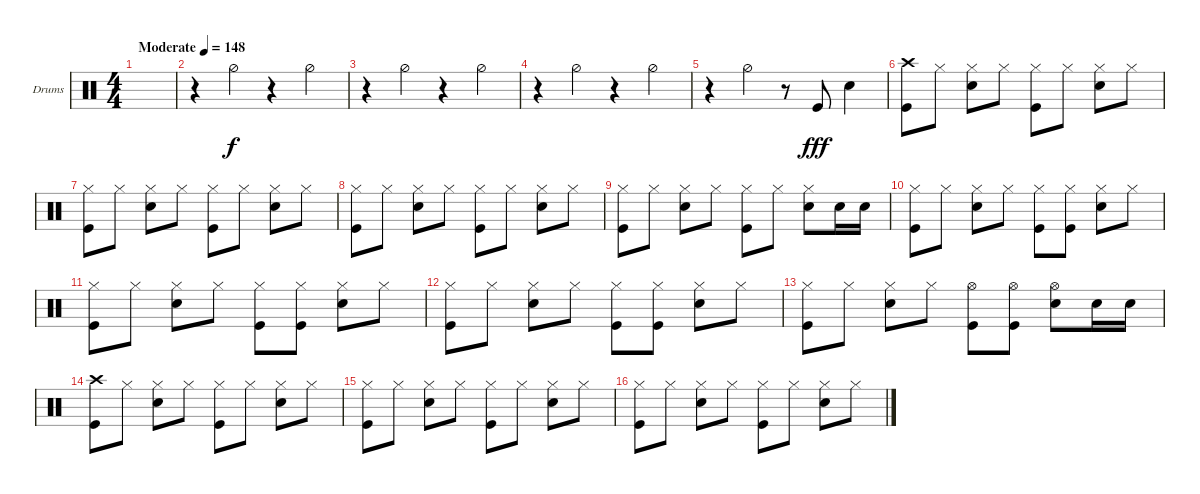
\bracketExtendMode groupsimilarinstruments
\firstSystemTrackNameOrientation horizontal
\otherSystemsTrackNameOrientation horizontal
\track ("James Kottak" "Drums") {instrument percussion}
\staff {score}
\articulation defaults
\ts (4 4)
\beaming (8 2 2 2 2)
\tempo (148 "Moderate")
\clef neutral
\ks c
|
r.4 "Hi-Hat (half)".4 r.4 "Hi-Hat (half)".4 |
r.4 "Hi-Hat (half)".4 r.4 "Hi-Hat (half)".4 |
r.4 "Hi-Hat (half)".4 r.4 "Hi-Hat (half)".4 |
r.4 "Hi-Hat (half)".4 r.8 "Kick (hit)".8{dy fff} "Snare (hit) 2".4 |
("Kick (hit)" "Crash high (hit)").8 "Hi-Hat (closed)".8 ("Hi-Hat (closed)" "Snare (hit) 2").8 "Hi-Hat (closed)".8 ("Hi-Hat (closed)" "Kick (hit)").8 "Hi-Hat (closed)".8 ("Hi-Hat (closed)" "Snare (hit) 2").8 "Hi-Hat (closed)".8 |
("Kick (hit)" "Hi-Hat (closed)").8 "Hi-Hat (closed)".8 ("Hi-Hat (closed)" "Snare (hit) 2").8 "Hi-Hat (closed)".8 ("Hi-Hat (closed)" "Kick (hit)").8 "Hi-Hat (closed)".8 ("Hi-Hat (closed)" "Snare (hit) 2").8 "Hi-Hat (closed)".8 |
("Kick (hit)" "Hi-Hat (closed)").8 "Hi-Hat (closed)".8 ("Hi-Hat (closed)" "Snare (hit) 2").8 "Hi-Hat (closed)".8 ("Hi-Hat (closed)" "Kick (hit)").8 "Hi-Hat (closed)".8 ("Hi-Hat (closed)" "Snare (hit) 2").8 "Hi-Hat (closed)".8 |
("Kick (hit)" "Hi-Hat (closed)").8 "Hi-Hat (closed)".8 ("Hi-Hat (closed)" "Snare (hit) 2").8 "Hi-Hat (closed)".8 ("Hi-Hat (closed)" "Kick (hit)").8 "Hi-Hat (closed)".8 ("Hi-Hat (closed)" "Snare (hit) 2").8 "Snare (hit) 2".16 "Snare (hit) 2".16 |
("Kick (hit)" "Hi-Hat (closed)").8 "Hi-Hat (closed)".8 ("Hi-Hat (closed)" "Snare (hit) 2").8 "Hi-Hat (closed)".8 ("Hi-Hat (closed)" "Kick (hit)").8 ("Hi-Hat (closed)" "Kick (hit)").8 ("Hi-Hat (closed)" "Snare (hit) 2").8 "Hi-Hat (closed)".8 |
("Kick (hit)" "Hi-Hat (closed)").8 "Hi-Hat (closed)".8 ("Hi-Hat (closed)" "Snare (hit) 2").8 "Hi-Hat (closed)".8 ("Hi-Hat (closed)" "Kick (hit)").8 ("Hi-Hat (closed)" "Kick (hit)").8 ("Hi-Hat (closed)" "Snare (hit) 2").8 "Hi-Hat (closed)".8 |
("Kick (hit)" "Hi-Hat (closed)").8 "Hi-Hat (closed)".8 ("Hi-Hat (closed)" "Snare (hit) 2").8 "Hi-Hat (closed)".8 ("Hi-Hat (closed)" "Kick (hit)").8 ("Hi-Hat (closed)" "Kick (hit)").8 ("Hi-Hat (closed)" "Snare (hit) 2").8 "Hi-Hat (closed)".8 |
("Kick (hit)" "Hi-Hat (closed)").8 "Hi-Hat (closed)".8 ("Hi-Hat (closed)" "Snare (hit) 2").8 "Hi-Hat (closed)".8 ("Hi-Hat (open)" "Kick (hit)").8 ("Hi-Hat (open)" "Kick (hit)").8 ("Hi-Hat (open)" "Snare (hit) 2").8 "Snare (hit) 2".16 "Snare (hit) 2".16 |
("Kick (hit)" "Crash high (hit)").8 "Hi-Hat (closed)".8 ("Hi-Hat (closed)" "Snare (hit) 2").8 "Hi-Hat (closed)".8 ("Hi-Hat (closed)" "Kick (hit)").8 "Hi-Hat (closed)".8 ("Hi-Hat (closed)" "Snare (hit) 2").8 "Hi-Hat (closed)".8 |
("Kick (hit)" "Hi-Hat (closed)").8 "Hi-Hat (closed)".8 ("Hi-Hat (closed)" "Snare (hit) 2").8 "Hi-Hat (closed)".8 ("Hi-Hat (closed)" "Kick (hit)").8 "Hi-Hat (closed)".8 ("Hi-Hat (closed)" "Snare (hit) 2").8 "Hi-Hat (closed)".8 |
("Kick (hit)" "Hi-Hat (closed)").8 "Hi-Hat (closed)".8 ("Hi-Hat (closed)" "Snare (hit) 2").8 "Hi-Hat (closed)".8 ("Hi-Hat (closed)" "Kick (hit)").8 "Hi-Hat (closed)".8 ("Hi-Hat (closed)" "Snare (hit) 2").8 "Hi-Hat (closed)".8
